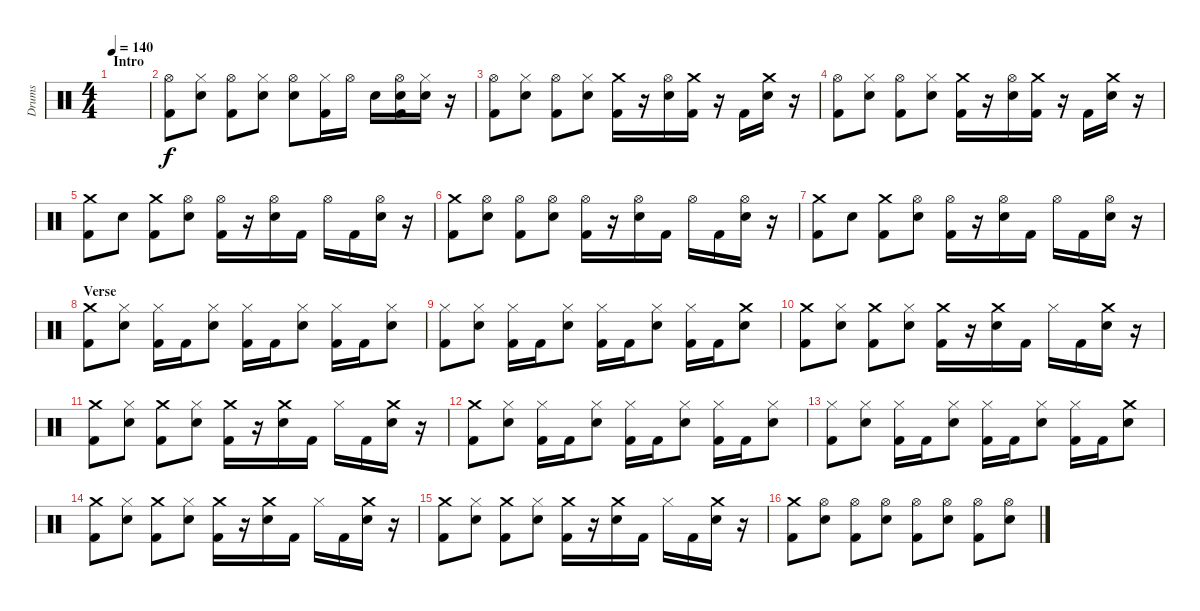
\track ("Drums" "Drums") {instrument percussion}
\staff {score}
\articulation defaults
\ts (4 4)
\section ("" "Intro")
\tempo 140
\clef neutral
\ks c
|
("Hi-Hat (open)" "Kick (hit) 2").8 ("Hi-Hat (closed)" "Snare (hit) 2").8 ("Hi-Hat (open)" "Kick (hit) 2").8 ("Hi-Hat (closed)" "Snare (hit) 2").8 ("Hi-Hat (open)" "Snare (hit) 2").8 ("Hi-Hat (closed)" "Kick (hit) 2").16 "Hi-Hat (open)".16 "Snare (hit) 2".16 ("Hi-Hat (open)" "Snare (hit) 2" "Kick (hit) 2").16 ("Hi-Hat (closed)" "Snare (hit) 2").16 r.16 |
("Hi-Hat (open)" "Kick (hit) 2").8 ("Hi-Hat (closed)" "Snare (hit) 2").8 ("Hi-Hat (open)" "Kick (hit) 2").8 ("Hi-Hat (closed)" "Snare (hit) 2").8 ("Crash medium (hit)" "Kick (hit) 2").16 r.16 ("Hi-Hat (open)" "Snare (hit) 2").16 ("Crash medium (hit)" "Kick (hit) 2").16 r.16 "Kick (hit) 2".16 ("Crash medium (hit)" "Snare (hit) 2").16 r.16 |
("Hi-Hat (open)" "Kick (hit) 2").8 ("Hi-Hat (closed)" "Snare (hit) 2").8 ("Hi-Hat (open)" "Kick (hit) 2").8 ("Hi-Hat (closed)" "Snare (hit) 2").8 ("Crash medium (hit)" "Kick (hit) 2").16 r.16 ("Hi-Hat (open)" "Snare (hit) 2").16 ("Crash medium (hit)" "Kick (hit) 2").16 r.16 "Kick (hit) 2".16 ("Crash medium (hit)" "Snare (hit) 2").16 r.16 |
("Crash medium (hit)" "Kick (hit) 2").8 "Snare (hit) 2".8 ("Crash medium (hit)" "Kick (hit) 2").8 ("Hi-Hat (open)" "Snare (hit) 2").8 ("Hi-Hat (open)" "Kick (hit) 2").16 r.16 ("Hi-Hat (open)" "Snare (hit) 2").16 "Kick (hit) 2".16 "Hi-Hat (open)".16 "Kick (hit) 2".16 ("Hi-Hat (open)" "Snare (hit) 2").16 r.16 |
("Crash medium (hit)" "Kick (hit) 2").8 ("Hi-Hat (open)" "Snare (hit) 2").8 ("Hi-Hat (open)" "Kick (hit) 2").8 ("Hi-Hat (open)" "Snare (hit) 2").8 ("Hi-Hat (open)" "Kick (hit) 2").16 r.16 ("Hi-Hat (open)" "Snare (hit) 2").16 "Kick (hit) 2".16 "Hi-Hat (open)".16 "Kick (hit) 2".16 ("Hi-Hat (open)" "Snare (hit) 2").16 r.16 |
("Crash medium (hit)" "Kick (hit) 2").8 "Snare (hit) 2".8 ("Crash medium (hit)" "Kick (hit) 2").8 ("Hi-Hat (open)" "Snare (hit) 2").8 ("Hi-Hat (open)" "Kick (hit) 2").16 r.16 ("Hi-Hat (open)" "Snare (hit) 2").16 "Kick (hit) 2".16 "Hi-Hat (open)".16 "Kick (hit) 2".16 ("Hi-Hat (open)" "Snare (hit) 2").16 r.16 |
\section ("" "Verse")
("Crash medium (hit)" "Kick (hit) 2").8 ("Hi-Hat (closed)" "Snare (hit) 2").8 ("Hi-Hat (closed)" "Kick (hit) 2").16 "Kick (hit) 2".16 ("Hi-Hat (closed)" "Snare (hit) 2").8 ("Hi-Hat (closed)" "Kick (hit) 2").16 "Kick (hit) 2".16 ("Hi-Hat (closed)" "Snare (hit) 2").8 ("Hi-Hat (closed)" "Kick (hit) 2").16 "Kick (hit) 2".16 ("Hi-Hat (closed)" "Snare (hit) 2").8 |
("Hi-Hat (closed)" "Kick (hit) 2").8 ("Hi-Hat (closed)" "Snare (hit) 2").8 ("Hi-Hat (closed)" "Kick (hit) 2").16 "Kick (hit) 2".16 ("Hi-Hat (closed)" "Snare (hit) 2").8 ("Hi-Hat (closed)" "Kick (hit) 2").16 "Kick (hit) 2".16 ("Hi-Hat (closed)" "Snare (hit) 2").8 ("Hi-Hat (closed)" "Kick (hit) 2").16 "Kick (hit) 2".16 ("Crash medium (hit)" "Snare (hit) 2").8 |
("Crash medium (hit)" "Kick (hit) 2").8 ("Hi-Hat (closed)" "Snare (hit) 2").8 ("Crash medium (hit)" "Kick (hit) 2").8 ("Hi-Hat (closed)" "Snare (hit) 2").8 ("Crash medium (hit)" "Kick (hit) 2").16 r.16 ("Crash medium (hit)" "Snare (hit) 2").16 "Kick (hit) 2".16 "Hi-Hat (closed)".16 "Kick (hit) 2".16 ("Crash medium (hit)" "Snare (hit) 2").16 r.16 |
("Crash medium (hit)" "Kick (hit) 2").8 ("Hi-Hat (closed)" "Snare (hit) 2").8 ("Crash medium (hit)" "Kick (hit) 2").8 ("Hi-Hat (closed)" "Snare (hit) 2").8 ("Crash medium (hit)" "Kick (hit) 2").16 r.16 ("Crash medium (hit)" "Snare (hit) 2").16 "Kick (hit) 2".16 "Hi-Hat (closed)".16 "Kick (hit) 2".16 ("Crash medium (hit)" "Snare (hit) 2").16 r.16 |
("Crash medium (hit)" "Kick (hit) 2").8 ("Hi-Hat (closed)" "Snare (hit) 2").8 ("Hi-Hat (closed)" "Kick (hit) 2").16 "Kick (hit) 2".16 ("Hi-Hat (closed)" "Snare (hit) 2").8 ("Hi-Hat (closed)" "Kick (hit) 2").16 "Kick (hit) 2".16 ("Hi-Hat (closed)" "Snare (hit) 2").8 ("Hi-Hat (closed)" "Kick (hit) 2").16 "Kick (hit) 2".16 ("Hi-Hat (closed)" "Snare (hit) 2").8 |
("Hi-Hat (closed)" "Kick (hit) 2").8 ("Hi-Hat (closed)" "Snare (hit) 2").8 ("Hi-Hat (closed)" "Kick (hit) 2").16 "Kick (hit) 2".16 ("Hi-Hat (closed)" "Snare (hit) 2").8 ("Hi-Hat (closed)" "Kick (hit) 2").16 "Kick (hit) 2".16 ("Hi-Hat (closed)" "Snare (hit) 2").8 ("Hi-Hat (closed)" "Kick (hit) 2").16 "Kick (hit) 2".16 ("Crash medium (hit)" "Snare (hit) 2").8 |
("Crash medium (hit)" "Kick (hit) 2").8 ("Hi-Hat (closed)" "Snare (hit) 2").8 ("Crash medium (hit)" "Kick (hit) 2").8 ("Hi-Hat (closed)" "Snare (hit) 2").8 ("Crash medium (hit)" "Kick (hit) 2").16 r.16 ("Crash medium (hit)" "Snare (hit) 2").16 "Kick (hit) 2".16 "Hi-Hat (closed)".16 "Kick (hit) 2".16 ("Crash medium (hit)" "Snare (hit) 2").16 r.16 |
("Crash medium (hit)" "Kick (hit) 2").8 ("Hi-Hat (closed)" "Snare (hit) 2").8 ("Crash medium (hit)" "Kick (hit) 2").8 ("Hi-Hat (closed)" "Snare (hit) 2").8 ("Crash medium (hit)" "Kick (hit) 2").16 r.16 ("Crash medium (hit)" "Snare (hit) 2").16 "Kick (hit) 2".16 "Hi-Hat (closed)".16 "Kick (hit) 2".16 ("Crash medium (hit)" "Snare (hit) 2").16 r.16 |
("Crash medium (hit)" "Kick (hit) 2").8 ("Hi-Hat (open)" "Snare (hit) 2").8 ("Hi-Hat (open)" "Kick (hit) 2").8 ("Hi-Hat (open)" "Snare (hit) 2").8 ("Hi-Hat (open)" "Kick (hit) 2").8 ("Hi-Hat (open)" "Snare (hit) 2").8 ("Hi-Hat (open)" "Kick (hit) 2").8 ("Hi-Hat (open)" "Snare (hit) 2").8
